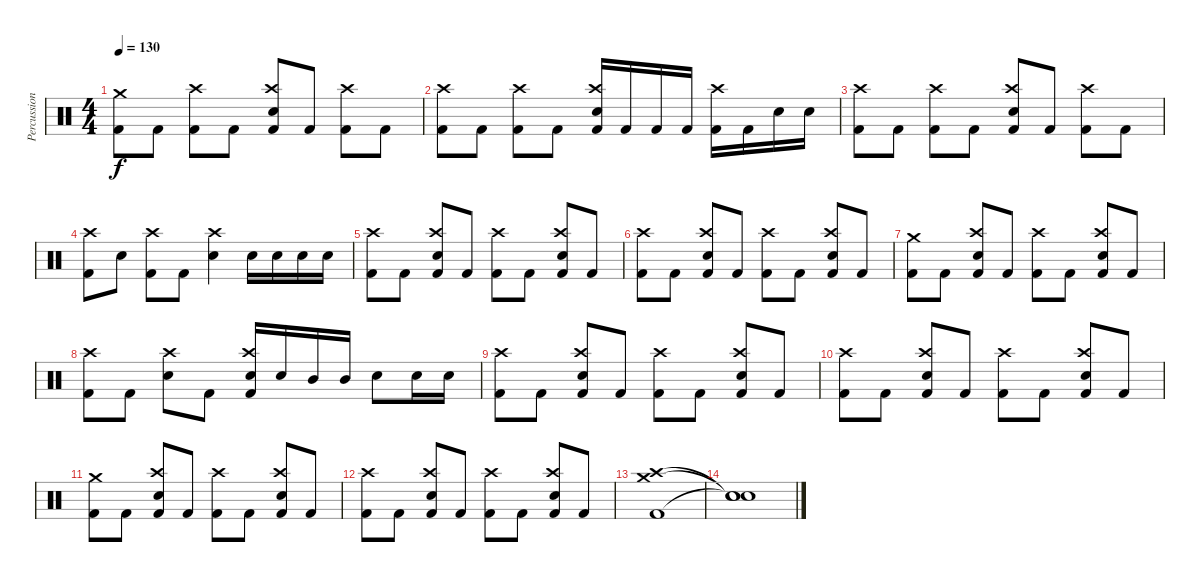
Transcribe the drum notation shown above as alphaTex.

\track ("Percussion" "Percussion") {instrument percussion}
\staff {score}
\articulation defaults
\ts (4 4)
\tempo 130
\clef neutral
\ks c
("Crash medium (hit)" "Kick (hit) 2").8{dy f} "Kick (hit) 2".8 ("Crash high (hit)" "Kick (hit) 2").8 "Kick (hit) 2".8 ("Crash high (hit)" "Electric Snare (hit)" "Kick (hit) 2").8 "Kick (hit) 2".8 ("Crash high (hit)" "Kick (hit) 2").8 "Kick (hit) 2".8 |
("Crash high (hit)" "Kick (hit) 2").8 "Kick (hit) 2".8 ("Crash high (hit)" "Kick (hit) 2").8 "Kick (hit) 2".8 ("Crash high (hit)" "Electric Snare (hit)" "Kick (hit) 2").16 "Kick (hit) 2".16 "Kick (hit) 2".16 "Kick (hit) 2".16 ("Crash high (hit)" "Kick (hit) 2").16 "Kick (hit) 2".16 "Electric Snare (hit)".16 "Electric Snare (hit)".16 |
("Crash high (hit)" "Kick (hit) 2").8 "Kick (hit) 2".8 ("Crash high (hit)" "Kick (hit) 2").8 "Kick (hit) 2".8 ("Crash high (hit)" "Electric Snare (hit)" "Kick (hit) 2").8 "Kick (hit) 2".8 ("Crash high (hit)" "Kick (hit) 2").8 "Kick (hit) 2".8 |
("Crash high (hit)" "Kick (hit) 2").8 "Electric Snare (hit)".8 ("Crash high (hit)" "Kick (hit) 2").8 "Kick (hit) 2".8 ("Crash high (hit)" "Electric Snare (hit)").4 "Electric Snare (hit)".16 "Electric Snare (hit)".16 "Electric Snare (hit)".16 "Electric Snare (hit)".16 |
("Crash high (hit)" "Kick (hit) 2").8 "Kick (hit) 2".8 ("Crash high (hit)" "Electric Snare (hit)" "Kick (hit) 2").8 "Kick (hit) 2".8 ("Crash high (hit)" "Kick (hit) 2").8 "Kick (hit) 2".8 ("Crash high (hit)" "Electric Snare (hit)" "Kick (hit) 2").8 "Kick (hit) 2".8 |
("Crash high (hit)" "Kick (hit) 2").8 "Kick (hit) 2".8 ("Crash high (hit)" "Electric Snare (hit)" "Kick (hit) 2").8 "Kick (hit) 2".8 ("Crash high (hit)" "Kick (hit) 2").8 "Kick (hit) 2".8 ("Crash high (hit)" "Electric Snare (hit)" "Kick (hit) 2").8 "Kick (hit) 2".8 |
("Crash medium (hit)" "Kick (hit) 2").8 "Kick (hit) 2".8 ("Crash high (hit)" "Electric Snare (hit)" "Kick (hit) 2").8 "Kick (hit) 2".8 ("Crash high (hit)" "Kick (hit) 2").8 "Kick (hit) 2".8 ("Crash high (hit)" "Electric Snare (hit)" "Kick (hit) 2").8 "Kick (hit) 2".8 |
("Crash high (hit)" "Kick (hit) 2").8 "Kick (hit) 2".8 ("Crash high (hit)" "Electric Snare (hit)").8 "Kick (hit) 2".8 ("Crash high (hit)" "Electric Snare (hit)" "Kick (hit) 2").16 "Electric Snare (hit)".16 "Mid Tom (hit)".16 "Mid Tom (hit)".16 "Electric Snare (hit)".8 "Electric Snare (hit)".16 "Electric Snare (hit)".16 |
("Crash high (hit)" "Kick (hit) 2").8 "Kick (hit) 2".8 ("Crash high (hit)" "Electric Snare (hit)" "Kick (hit) 2").8 "Kick (hit) 2".8 ("Crash high (hit)" "Kick (hit) 2").8 "Kick (hit) 2".8 ("Crash high (hit)" "Electric Snare (hit)" "Kick (hit) 2").8 "Kick (hit) 2".8 |
("Crash high (hit)" "Kick (hit) 2").8 "Kick (hit) 2".8 ("Crash high (hit)" "Electric Snare (hit)" "Kick (hit) 2").8 "Kick (hit) 2".8 ("Crash high (hit)" "Kick (hit) 2").8 "Kick (hit) 2".8 ("Crash high (hit)" "Electric Snare (hit)" "Kick (hit) 2").8 "Kick (hit) 2".8 |
("Crash medium (hit)" "Kick (hit) 2").8 "Kick (hit) 2".8 ("Crash high (hit)" "Electric Snare (hit)" "Kick (hit) 2").8 "Kick (hit) 2".8 ("Crash high (hit)" "Kick (hit) 2").8 "Kick (hit) 2".8 ("Crash high (hit)" "Electric Snare (hit)" "Kick (hit) 2").8 "Kick (hit) 2".8 |
("Crash high (hit)" "Kick (hit) 2").8 "Kick (hit) 2".8 ("Crash high (hit)" "Electric Snare (hit)" "Kick (hit) 2").8 "Kick (hit) 2".8 ("Crash high (hit)" "Kick (hit) 2").8 "Kick (hit) 2".8 ("Crash high (hit)" "Electric Snare (hit)" "Kick (hit) 2").8 "Kick (hit) 2".8 |
("Crash high (hit)" "Crash medium (hit)" "Kick (hit) 2").1 |
("Snare (hit)"{t} "Snare (hit)"{t} "Snare (hit)"{t}).1
